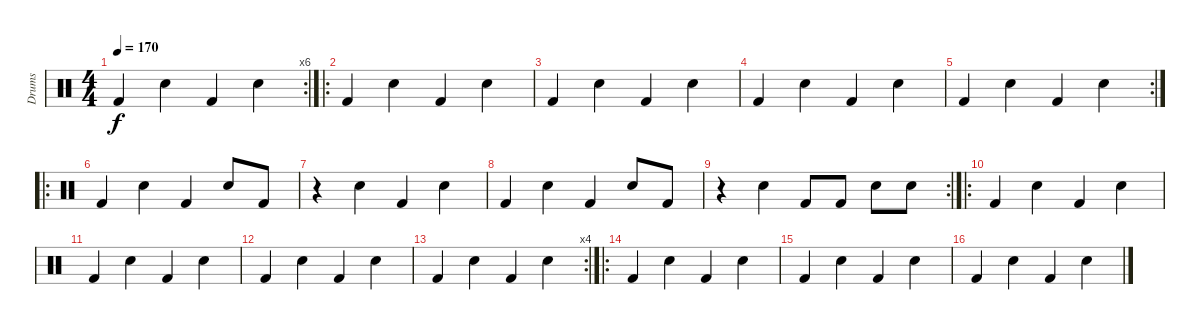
\track ("Drums" "Drums") {instrument percussion}
\staff {score}
\articulation defaults
\rc 6
\ts (4 4)
\tempo 170
\clef neutral
\ks c "Kick (hit) 2".4{dy f} "Snare (hit) 2".4 "Kick (hit) 2".4 "Snare (hit) 2".4
|
\ro "Kick (hit) 2".4 "Snare (hit) 2".4 "Kick (hit) 2".4 "Snare (hit) 2".4
|
"Kick (hit) 2".4 "Snare (hit) 2".4 "Kick (hit) 2".4 "Snare (hit) 2".4 |
"Kick (hit) 2".4 "Snare (hit) 2".4 "Kick (hit) 2".4 "Snare (hit) 2".4 |
\rc 2 "Kick (hit) 2".4 "Snare (hit) 2".4 "Kick (hit) 2".4 "Snare (hit) 2".4
|
\ro "Kick (hit) 2".4 "Snare (hit) 2".4 "Kick (hit) 2".4 "Snare (hit) 2".8 "Kick (hit) 2".8
|
r.4 "Snare (hit) 2".4 "Kick (hit) 2".4 "Snare (hit) 2".4 |
"Kick (hit) 2".4 "Snare (hit) 2".4 "Kick (hit) 2".4 "Snare (hit) 2".8 "Kick (hit) 2".8 |
\rc 2
r.4 "Snare (hit) 2".4 "Kick (hit) 2".8 "Kick (hit) 2".8 "Snare (hit) 2".8 "Snare (hit) 2".8 |
\ro "Kick (hit) 2".4 "Snare (hit) 2".4 "Kick (hit) 2".4 "Snare (hit) 2".4
|
"Kick (hit) 2".4 "Snare (hit) 2".4 "Kick (hit) 2".4 "Snare (hit) 2".4 |
"Kick (hit) 2".4 "Snare (hit) 2".4 "Kick (hit) 2".4 "Snare (hit) 2".4 |
\rc 4 "Kick (hit) 2".4 "Snare (hit) 2".4 "Kick (hit) 2".4 "Snare (hit) 2".4
|
\ro "Kick (hit) 2".4 "Snare (hit) 2".4 "Kick (hit) 2".4 "Snare (hit) 2".4
|
"Kick (hit) 2".4 "Snare (hit) 2".4 "Kick (hit) 2".4 "Snare (hit) 2".4 |
"Kick (hit) 2".4 "Snare (hit) 2".4 "Kick (hit) 2".4 "Snare (hit) 2".4
